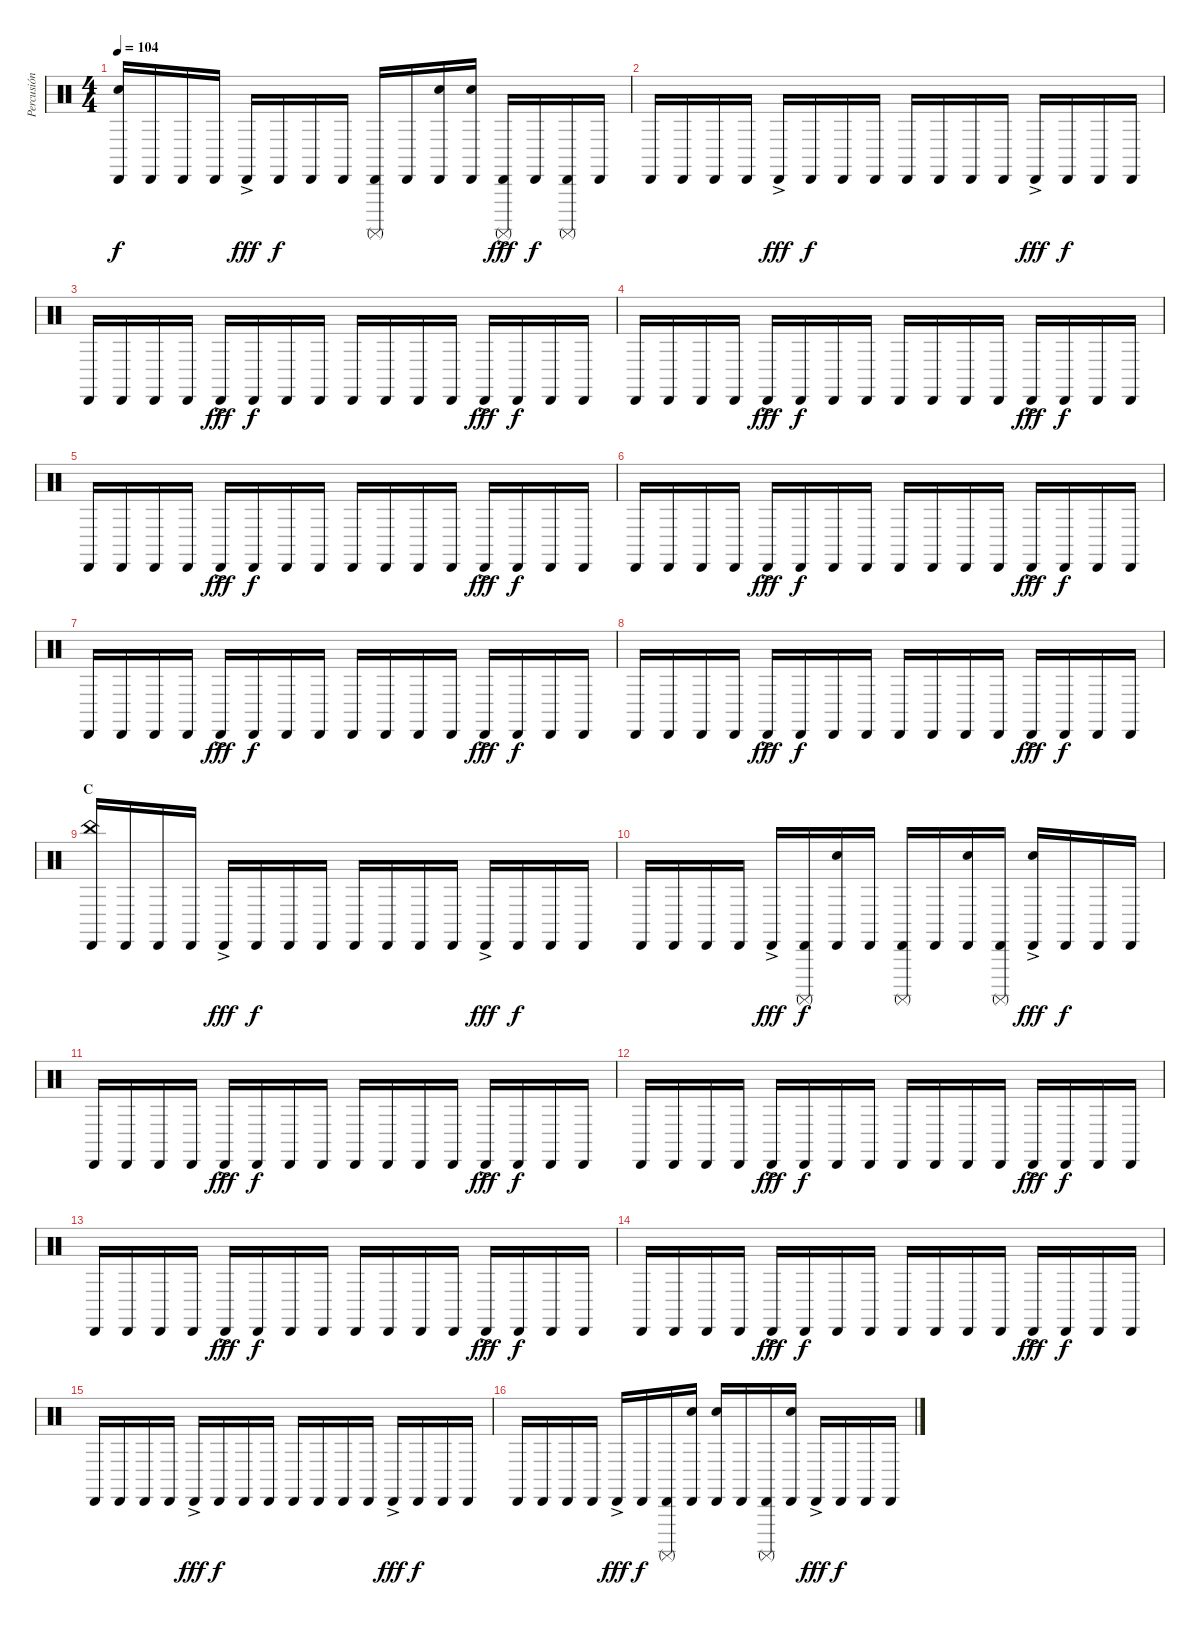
\track ("Percusión" "Percusión") {instrument percussion}
\staff {score}
\articulation defaults
\ts (4 4)
\tempo 104
\clef neutral
\ks c
("Cabasa (hit)" "Snare (hit)").16{dy f} "Cabasa (hit)".16 "Cabasa (hit)".16 "Cabasa (hit)".16 "Cabasa (hit)"{ac}.16{dy fff} "Cabasa (hit)".16{dy f} "Cabasa (hit)".16 "Cabasa (hit)".16 ("Cabasa (hit)" "Surdo (mute)").16 "Cabasa (hit)".16 ("Cabasa (hit)" "Snare (hit)").16 ("Cabasa (hit)" "Snare (hit)").16 ("Cabasa (hit)"{ac} "Surdo (mute)").16{dy fff} "Cabasa (hit)".16{dy f} ("Cabasa (hit)" "Surdo (mute)").16 "Cabasa (hit)".16 |
"Cabasa (hit)".16 "Cabasa (hit)".16 "Cabasa (hit)".16 "Cabasa (hit)".16 "Cabasa (hit)"{ac}.16{dy fff} "Cabasa (hit)".16{dy f} "Cabasa (hit)".16 "Cabasa (hit)".16 "Cabasa (hit)".16 "Cabasa (hit)".16 "Cabasa (hit)".16 "Cabasa (hit)".16 "Cabasa (hit)"{ac}.16{dy fff} "Cabasa (hit)".16{dy f} "Cabasa (hit)".16 "Cabasa (hit)".16 |
"Cabasa (hit)".16 "Cabasa (hit)".16 "Cabasa (hit)".16 "Cabasa (hit)".16 "Cabasa (hit)"{ac}.16{dy fff} "Cabasa (hit)".16{dy f} "Cabasa (hit)".16 "Cabasa (hit)".16 "Cabasa (hit)".16 "Cabasa (hit)".16 "Cabasa (hit)".16 "Cabasa (hit)".16 "Cabasa (hit)"{ac}.16{dy fff} "Cabasa (hit)".16{dy f} "Cabasa (hit)".16 "Cabasa (hit)".16 |
"Cabasa (hit)".16 "Cabasa (hit)".16 "Cabasa (hit)".16 "Cabasa (hit)".16 "Cabasa (hit)"{ac}.16{dy fff} "Cabasa (hit)".16{dy f} "Cabasa (hit)".16 "Cabasa (hit)".16 "Cabasa (hit)".16 "Cabasa (hit)".16 "Cabasa (hit)".16 "Cabasa (hit)".16 "Cabasa (hit)"{ac}.16{dy fff} "Cabasa (hit)".16{dy f} "Cabasa (hit)".16 "Cabasa (hit)".16 |
"Cabasa (hit)".16 "Cabasa (hit)".16 "Cabasa (hit)".16 "Cabasa (hit)".16 "Cabasa (hit)"{ac}.16{dy fff} "Cabasa (hit)".16{dy f} "Cabasa (hit)".16 "Cabasa (hit)".16 "Cabasa (hit)".16 "Cabasa (hit)".16 "Cabasa (hit)".16 "Cabasa (hit)".16 "Cabasa (hit)"{ac}.16{dy fff} "Cabasa (hit)".16{dy f} "Cabasa (hit)".16 "Cabasa (hit)".16 |
"Cabasa (hit)".16 "Cabasa (hit)".16 "Cabasa (hit)".16 "Cabasa (hit)".16 "Cabasa (hit)"{ac}.16{dy fff} "Cabasa (hit)".16{dy f} "Cabasa (hit)".16 "Cabasa (hit)".16 "Cabasa (hit)".16 "Cabasa (hit)".16 "Cabasa (hit)".16 "Cabasa (hit)".16 "Cabasa (hit)"{ac}.16{dy fff} "Cabasa (hit)".16{dy f} "Cabasa (hit)".16 "Cabasa (hit)".16 |
"Cabasa (hit)".16 "Cabasa (hit)".16 "Cabasa (hit)".16 "Cabasa (hit)".16 "Cabasa (hit)"{ac}.16{dy fff} "Cabasa (hit)".16{dy f} "Cabasa (hit)".16 "Cabasa (hit)".16 "Cabasa (hit)".16 "Cabasa (hit)".16 "Cabasa (hit)".16 "Cabasa (hit)".16 "Cabasa (hit)"{ac}.16{dy fff} "Cabasa (hit)".16{dy f} "Cabasa (hit)".16 "Cabasa (hit)".16 |
"Cabasa (hit)".16 "Cabasa (hit)".16 "Cabasa (hit)".16 "Cabasa (hit)".16 "Cabasa (hit)"{ac}.16{dy fff} "Cabasa (hit)".16{dy f} "Cabasa (hit)".16 "Cabasa (hit)".16 "Cabasa (hit)".16 "Cabasa (hit)".16 "Cabasa (hit)".16 "Cabasa (hit)".16 "Cabasa (hit)"{ac}.16{dy fff} "Cabasa (hit)".16{dy f} "Cabasa (hit)".16 "Cabasa (hit)".16 |
\section ("" "C")
("Cabasa (hit)" "China (hit)").16 "Cabasa (hit)".16 "Cabasa (hit)".16 "Cabasa (hit)".16 "Cabasa (hit)"{ac}.16{dy fff} "Cabasa (hit)".16{dy f} "Cabasa (hit)".16 "Cabasa (hit)".16 "Cabasa (hit)".16 "Cabasa (hit)".16 "Cabasa (hit)".16 "Cabasa (hit)".16 "Cabasa (hit)"{ac}.16{dy fff} "Cabasa (hit)".16{dy f} "Cabasa (hit)".16 "Cabasa (hit)".16 |
"Cabasa (hit)".16 "Cabasa (hit)".16 "Cabasa (hit)".16 "Cabasa (hit)".16 "Cabasa (hit)"{ac}.16{dy fff} ("Cabasa (hit)" "Surdo (mute)").16{dy f} ("Cabasa (hit)" "Snare (hit)").16 "Cabasa (hit)".16 ("Cabasa (hit)" "Surdo (mute)").16 "Cabasa (hit)".16 ("Cabasa (hit)" "Snare (hit)").16 ("Cabasa (hit)" "Surdo (mute)").16 ("Cabasa (hit)"{ac} "Snare (hit)").16{dy fff} "Cabasa (hit)".16{dy f} "Cabasa (hit)".16 "Cabasa (hit)".16 |
"Cabasa (hit)".16 "Cabasa (hit)".16 "Cabasa (hit)".16 "Cabasa (hit)".16 "Cabasa (hit)"{ac}.16{dy fff} "Cabasa (hit)".16{dy f} "Cabasa (hit)".16 "Cabasa (hit)".16 "Cabasa (hit)".16 "Cabasa (hit)".16 "Cabasa (hit)".16 "Cabasa (hit)".16 "Cabasa (hit)"{ac}.16{dy fff} "Cabasa (hit)".16{dy f} "Cabasa (hit)".16 "Cabasa (hit)".16 |
"Cabasa (hit)".16 "Cabasa (hit)".16 "Cabasa (hit)".16 "Cabasa (hit)".16 "Cabasa (hit)"{ac}.16{dy fff} "Cabasa (hit)".16{dy f} "Cabasa (hit)".16 "Cabasa (hit)".16 "Cabasa (hit)".16 "Cabasa (hit)".16 "Cabasa (hit)".16 "Cabasa (hit)".16 "Cabasa (hit)"{ac}.16{dy fff} "Cabasa (hit)".16{dy f} "Cabasa (hit)".16 "Cabasa (hit)".16 |
"Cabasa (hit)".16 "Cabasa (hit)".16 "Cabasa (hit)".16 "Cabasa (hit)".16 "Cabasa (hit)"{ac}.16{dy fff} "Cabasa (hit)".16{dy f} "Cabasa (hit)".16 "Cabasa (hit)".16 "Cabasa (hit)".16 "Cabasa (hit)".16 "Cabasa (hit)".16 "Cabasa (hit)".16 "Cabasa (hit)"{ac}.16{dy fff} "Cabasa (hit)".16{dy f} "Cabasa (hit)".16 "Cabasa (hit)".16 |
"Cabasa (hit)".16 "Cabasa (hit)".16 "Cabasa (hit)".16 "Cabasa (hit)".16 "Cabasa (hit)"{ac}.16{dy fff} "Cabasa (hit)".16{dy f} "Cabasa (hit)".16 "Cabasa (hit)".16 "Cabasa (hit)".16 "Cabasa (hit)".16 "Cabasa (hit)".16 "Cabasa (hit)".16 "Cabasa (hit)"{ac}.16{dy fff} "Cabasa (hit)".16{dy f} "Cabasa (hit)".16 "Cabasa (hit)".16 |
"Cabasa (hit)".16 "Cabasa (hit)".16 "Cabasa (hit)".16 "Cabasa (hit)".16 "Cabasa (hit)"{ac}.16{dy fff} "Cabasa (hit)".16{dy f} "Cabasa (hit)".16 "Cabasa (hit)".16 "Cabasa (hit)".16 "Cabasa (hit)".16 "Cabasa (hit)".16 "Cabasa (hit)".16 "Cabasa (hit)"{ac}.16{dy fff} "Cabasa (hit)".16{dy f} "Cabasa (hit)".16 "Cabasa (hit)".16 |
"Cabasa (hit)".16 "Cabasa (hit)".16 "Cabasa (hit)".16 "Cabasa (hit)".16 "Cabasa (hit)"{ac}.16{dy fff} "Cabasa (hit)".16{dy f} ("Cabasa (hit)" "Surdo (mute)").16 ("Cabasa (hit)" "Snare (hit)").16 ("Cabasa (hit)" "Snare (hit)").16 "Cabasa (hit)".16 ("Cabasa (hit)" "Surdo (mute)").16 ("Cabasa (hit)" "Snare (hit)").16 "Cabasa (hit)"{ac}.16{dy fff} "Cabasa (hit)".16{dy f} "Cabasa (hit)".16 "Cabasa (hit)".16
